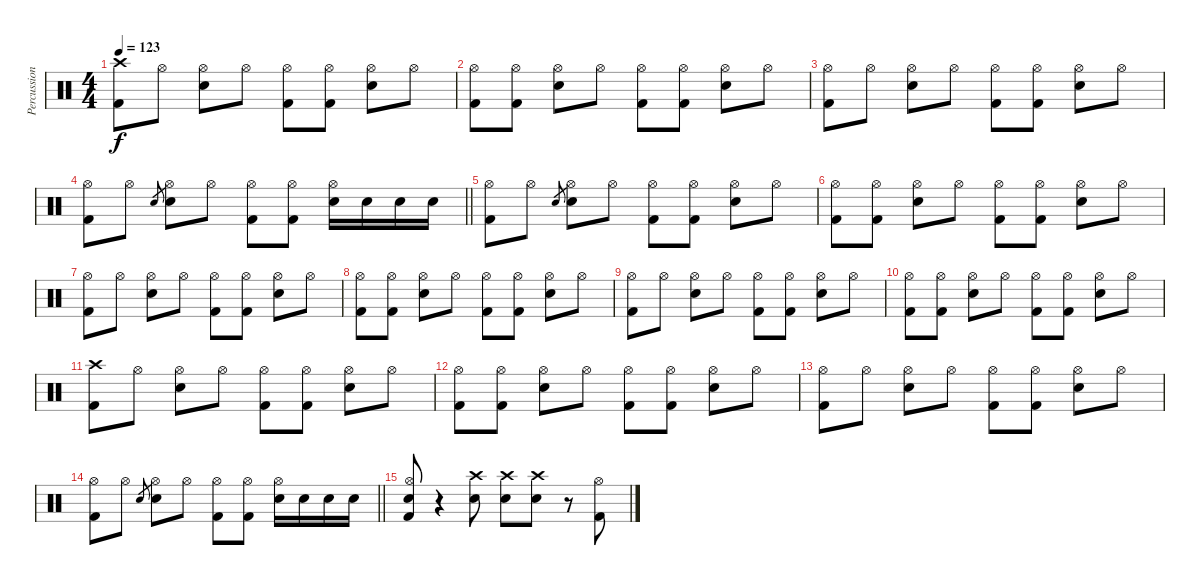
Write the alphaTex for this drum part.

\track ("Percussion" "Percussion") {instrument percussion}
\staff {score}
\articulation defaults
\ts (4 4)
\tempo 123
\clef neutral
\ks c
("Crash high (hit)" "Kick (hit) 2").8{dy f} "Hi-Hat (open)".8 ("Hi-Hat (open)" "Snare (hit) 2").8 "Hi-Hat (open)".8 ("Hi-Hat (open)" "Kick (hit) 2").8 ("Hi-Hat (open)" "Kick (hit) 2").8 ("Hi-Hat (open)" "Snare (hit) 2").8 "Hi-Hat (open)".8 |
("Hi-Hat (open)" "Kick (hit) 2").8 ("Hi-Hat (open)" "Kick (hit) 2").8 ("Hi-Hat (open)" "Snare (hit) 2").8 "Hi-Hat (open)".8 ("Hi-Hat (open)" "Kick (hit) 2").8 ("Hi-Hat (open)" "Kick (hit) 2").8 ("Hi-Hat (open)" "Snare (hit) 2").8 "Hi-Hat (open)".8 |
("Hi-Hat (open)" "Kick (hit) 2").8 "Hi-Hat (open)".8 ("Hi-Hat (open)" "Snare (hit) 2").8 "Hi-Hat (open)".8 ("Hi-Hat (open)" "Kick (hit) 2").8 ("Hi-Hat (open)" "Kick (hit) 2").8 ("Hi-Hat (open)" "Snare (hit) 2").8 "Hi-Hat (open)".8 |
\barLineRight lightlight
("Hi-Hat (open)" "Kick (hit) 2").8 "Hi-Hat (open)".8 "Snare (hit) 2".8{gr} ("Hi-Hat (open)" "Snare (hit) 2").8 "Hi-Hat (open)".8 ("Hi-Hat (open)" "Kick (hit) 2").8 ("Hi-Hat (open)" "Kick (hit) 2").8 ("Hi-Hat (open)" "Snare (hit) 2").16 "Snare (hit) 2".16 "Snare (hit) 2".16 "Snare (hit) 2".16 |
("Hi-Hat (open)" "Kick (hit) 2").8 "Hi-Hat (open)".8 "Snare (hit) 2".8{gr} ("Hi-Hat (open)" "Snare (hit) 2").8 "Hi-Hat (open)".8 ("Hi-Hat (open)" "Kick (hit) 2").8 ("Hi-Hat (open)" "Kick (hit) 2").8 ("Hi-Hat (open)" "Snare (hit) 2").8 "Hi-Hat (open)".8 |
("Hi-Hat (open)" "Kick (hit) 2").8 ("Hi-Hat (open)" "Kick (hit) 2").8 ("Hi-Hat (open)" "Snare (hit) 2").8 "Hi-Hat (open)".8 ("Hi-Hat (open)" "Kick (hit) 2").8 ("Hi-Hat (open)" "Kick (hit) 2").8 ("Hi-Hat (open)" "Snare (hit) 2").8 "Hi-Hat (open)".8 |
("Hi-Hat (open)" "Kick (hit) 2").8 "Hi-Hat (open)".8 ("Hi-Hat (open)" "Snare (hit) 2").8 "Hi-Hat (open)".8 ("Hi-Hat (open)" "Kick (hit) 2").8 ("Hi-Hat (open)" "Kick (hit) 2").8 ("Hi-Hat (open)" "Snare (hit) 2").8 "Hi-Hat (open)".8 |
("Hi-Hat (open)" "Kick (hit) 2").8 ("Hi-Hat (open)" "Kick (hit) 2").8 ("Hi-Hat (open)" "Snare (hit) 2").8 "Hi-Hat (open)".8 ("Hi-Hat (open)" "Kick (hit) 2").8 ("Hi-Hat (open)" "Kick (hit) 2").8 ("Hi-Hat (open)" "Snare (hit) 2").8 "Hi-Hat (open)".8 |
("Hi-Hat (open)" "Kick (hit) 2").8 "Hi-Hat (open)".8 ("Hi-Hat (open)" "Snare (hit) 2").8 "Hi-Hat (open)".8 ("Hi-Hat (open)" "Kick (hit) 2").8 ("Hi-Hat (open)" "Kick (hit) 2").8 ("Hi-Hat (open)" "Snare (hit) 2").8 "Hi-Hat (open)".8 |
("Hi-Hat (open)" "Kick (hit) 2").8 ("Hi-Hat (open)" "Kick (hit) 2").8 ("Hi-Hat (open)" "Snare (hit) 2").8 "Hi-Hat (open)".8 ("Hi-Hat (open)" "Kick (hit) 2").8 ("Hi-Hat (open)" "Kick (hit) 2").8 ("Hi-Hat (open)" "Snare (hit) 2").8 "Hi-Hat (open)".8 |
("Crash high (hit)" "Kick (hit) 2").8 "Hi-Hat (open)".8 ("Hi-Hat (open)" "Snare (hit) 2").8 "Hi-Hat (open)".8 ("Hi-Hat (open)" "Kick (hit) 2").8 ("Hi-Hat (open)" "Kick (hit) 2").8 ("Hi-Hat (open)" "Snare (hit) 2").8 "Hi-Hat (open)".8 |
("Hi-Hat (open)" "Kick (hit) 2").8 ("Hi-Hat (open)" "Kick (hit) 2").8 ("Hi-Hat (open)" "Snare (hit) 2").8 "Hi-Hat (open)".8 ("Hi-Hat (open)" "Kick (hit) 2").8 ("Hi-Hat (open)" "Kick (hit) 2").8 ("Hi-Hat (open)" "Snare (hit) 2").8 "Hi-Hat (open)".8 |
("Hi-Hat (open)" "Kick (hit) 2").8 "Hi-Hat (open)".8 ("Hi-Hat (open)" "Snare (hit) 2").8 "Hi-Hat (open)".8 ("Hi-Hat (open)" "Kick (hit) 2").8 ("Hi-Hat (open)" "Kick (hit) 2").8 ("Hi-Hat (open)" "Snare (hit) 2").8 "Hi-Hat (open)".8 |
\barLineRight lightlight
("Hi-Hat (open)" "Kick (hit) 2").8 "Hi-Hat (open)".8 "Snare (hit) 2".8{gr} ("Hi-Hat (open)" "Snare (hit) 2").8 "Hi-Hat (open)".8 ("Hi-Hat (open)" "Kick (hit) 2").8 ("Hi-Hat (open)" "Kick (hit) 2").8 ("Hi-Hat (open)" "Snare (hit) 2").16 "Snare (hit) 2".16 "Snare (hit) 2".16 "Snare (hit) 2".16 |
("Hi-Hat (open)" "Snare (hit) 2" "Kick (hit) 2").8 r.4 ("Crash high (hit)" "Snare (hit) 2").8 ("Crash high (hit)" "Snare (hit) 2").8 ("Crash high (hit)" "Snare (hit) 2").8 r.8 ("Hi-Hat (open)" "Kick (hit) 2").8
